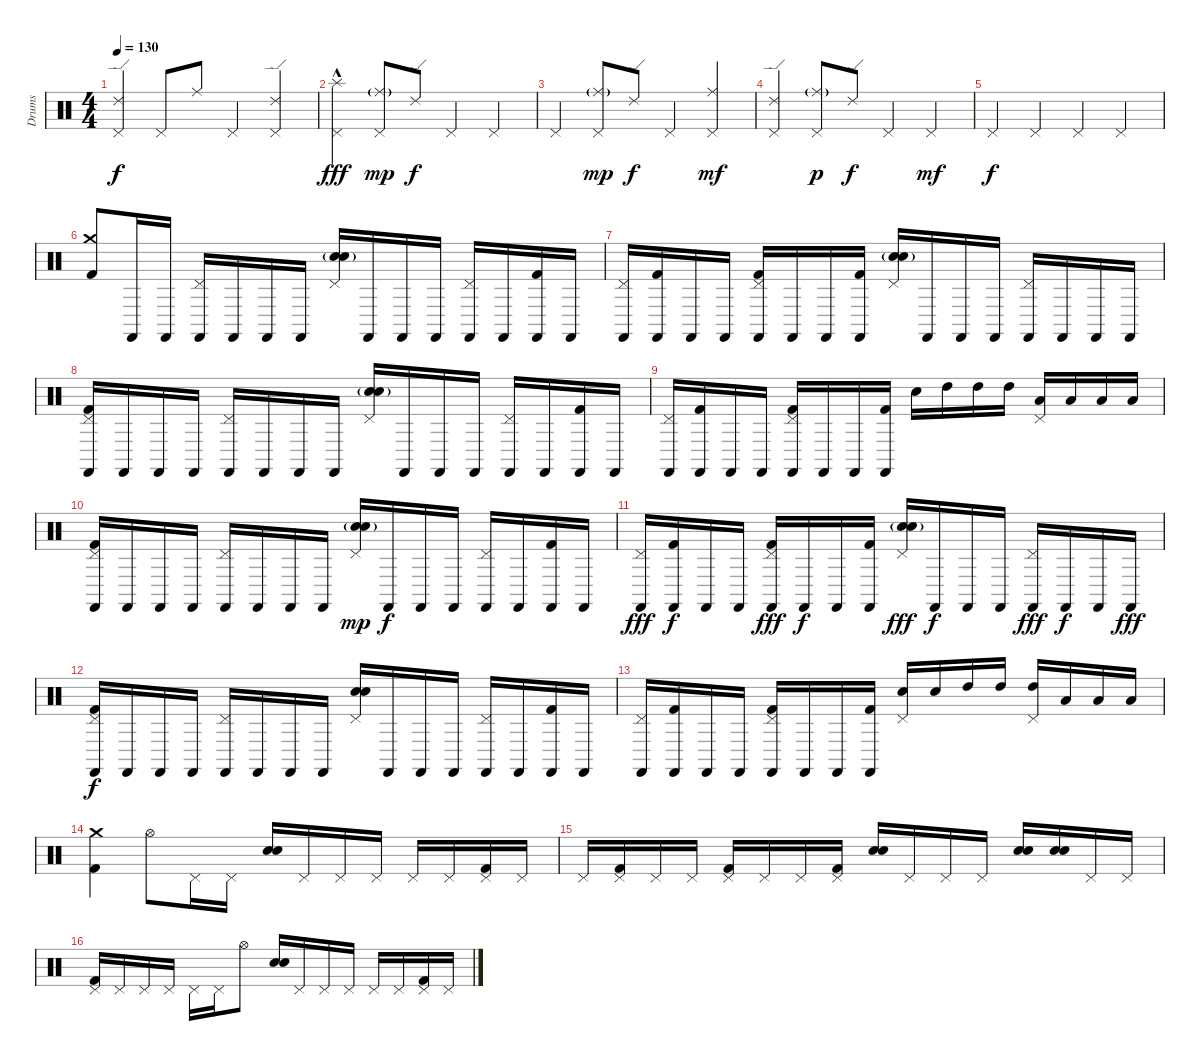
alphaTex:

\track ("Drums" "Drums") {instrument percussion}
\staff {score}
\articulation defaults
\ts (4 4)
\tempo 130
\clef neutral
\ks c
("Pedal Hi-Hat (hit)" "Ride (edge) 2").4{dy f} "Pedal Hi-Hat (hit)".8 "Ride (middle)".8 "Pedal Hi-Hat (hit)".4 ("Pedal Hi-Hat (hit)" "Ride (edge) 2").4 |
("Pedal Hi-Hat (hit)" "Splash (hit)"{hac}).4{dy fff} ("Pedal Hi-Hat (hit)" "Ride (middle)"{g}).8{dy mp} "Ride (edge) 2".8{dy f} "Pedal Hi-Hat (hit)".4 "Pedal Hi-Hat (hit)".4 |
"Pedal Hi-Hat (hit)".4 ("Pedal Hi-Hat (hit)" "Ride (middle)"{g}).8{dy mp} "Ride (edge) 2".8{dy f} "Pedal Hi-Hat (hit)".4 ("Pedal Hi-Hat (hit)" "Ride (middle)").4{dy mf} |
("Pedal Hi-Hat (hit)" "Ride (edge) 2").4 ("Pedal Hi-Hat (hit)" "Ride (middle)"{g}).8{dy p} "Ride (edge) 2".8{dy f} "Pedal Hi-Hat (hit)".4 "Pedal Hi-Hat (hit)".4{dy mf} |
"Pedal Hi-Hat (hit)".4{dy f} "Pedal Hi-Hat (hit)".4 "Pedal Hi-Hat (hit)".4 "Pedal Hi-Hat (hit)".4 |
("Crash medium (hit)" "Kick (hit) 2").8 "Castanets (hit)".16 "Castanets (hit)".16 ("Castanets (hit)" "Pedal Hi-Hat (hit)").16 "Castanets (hit)".16 "Castanets (hit)".16 "Castanets (hit)".16 ("Pedal Hi-Hat (hit)" "Electric Snare (hit)"{g} "Electric Snare (hit)").16 "Castanets (hit)".16 "Castanets (hit)".16 "Castanets (hit)".16 ("Castanets (hit)" "Pedal Hi-Hat (hit)").16 "Castanets (hit)".16 ("Castanets (hit)" "Kick (hit) 2").16 "Castanets (hit)".16 |
("Castanets (hit)" "Pedal Hi-Hat (hit)").16 ("Castanets (hit)" "Kick (hit) 2").16 "Castanets (hit)".16 "Castanets (hit)".16 ("Castanets (hit)" "Pedal Hi-Hat (hit)" "Kick (hit) 2").16 "Castanets (hit)".16 "Castanets (hit)".16 ("Castanets (hit)" "Kick (hit) 2").16 ("Pedal Hi-Hat (hit)" "Electric Snare (hit)"{g} "Electric Snare (hit)").16 "Castanets (hit)".16 "Castanets (hit)".16 "Castanets (hit)".16 ("Castanets (hit)" "Pedal Hi-Hat (hit)").16 "Castanets (hit)".16 "Castanets (hit)".16 "Castanets (hit)".16 |
("Castanets (hit)" "Pedal Hi-Hat (hit)" "Kick (hit) 2").16 "Castanets (hit)".16 "Castanets (hit)".16 "Castanets (hit)".16 ("Castanets (hit)" "Pedal Hi-Hat (hit)").16 "Castanets (hit)".16 "Castanets (hit)".16 "Castanets (hit)".16 ("Pedal Hi-Hat (hit)" "Electric Snare (hit)"{g} "Electric Snare (hit)").16 "Castanets (hit)".16 "Castanets (hit)".16 "Castanets (hit)".16 ("Castanets (hit)" "Pedal Hi-Hat (hit)").16 "Castanets (hit)".16 ("Castanets (hit)" "Kick (hit) 2").16 "Castanets (hit)".16 |
("Castanets (hit)" "Pedal Hi-Hat (hit)").16 ("Castanets (hit)" "Kick (hit) 2").16 "Castanets (hit)".16 "Castanets (hit)".16 ("Castanets (hit)" "Pedal Hi-Hat (hit)" "Kick (hit) 2").16 "Castanets (hit)".16 "Castanets (hit)".16 ("Castanets (hit)" "Kick (hit) 2").16 "Electric Snare (hit)".16 "High Tom (hit)".16 "High Tom (hit)".16 "High Tom (hit)".16 ("Low Tom (hit)" "Pedal Hi-Hat (hit)").16 "Low Tom (hit)".16 "Low Tom (hit)".16 "Low Tom (hit)".16 |
("Castanets (hit)" "Pedal Hi-Hat (hit)" "Kick (hit) 2").16 "Castanets (hit)".16 "Castanets (hit)".16 "Castanets (hit)".16 ("Castanets (hit)" "Pedal Hi-Hat (hit)").16 "Castanets (hit)".16 "Castanets (hit)".16 "Castanets (hit)".16 ("Pedal Hi-Hat (hit)" "Electric Snare (hit)"{g} "Electric Snare (hit)").16{dy mp} "Castanets (hit)".16{dy f} "Castanets (hit)".16 "Castanets (hit)".16 ("Castanets (hit)" "Pedal Hi-Hat (hit)").16 "Castanets (hit)".16 ("Castanets (hit)" "Kick (hit) 2").16 "Castanets (hit)".16 |
("Castanets (hit)" "Pedal Hi-Hat (hit)").16{dy fff} ("Castanets (hit)" "Kick (hit) 2").16{dy f} "Castanets (hit)".16 "Castanets (hit)".16 ("Castanets (hit)" "Pedal Hi-Hat (hit)" "Kick (hit) 2").16{dy fff} "Castanets (hit)".16{dy f} "Castanets (hit)".16 ("Castanets (hit)" "Kick (hit) 2").16 ("Pedal Hi-Hat (hit)" "Electric Snare (hit)"{g} "Electric Snare (hit)").16{dy fff} "Castanets (hit)".16{dy f} "Castanets (hit)".16 "Castanets (hit)".16 ("Castanets (hit)" "Pedal Hi-Hat (hit)").16{dy fff} "Castanets (hit)".16{dy f} "Castanets (hit)".16 "Castanets (hit)".16{dy fff} |
("Castanets (hit)" "Pedal Hi-Hat (hit)" "Kick (hit) 2").16{dy f} "Castanets (hit)".16 "Castanets (hit)".16 "Castanets (hit)".16 ("Castanets (hit)" "Pedal Hi-Hat (hit)").16 "Castanets (hit)".16 "Castanets (hit)".16 "Castanets (hit)".16 ("Pedal Hi-Hat (hit)" "Electric Snare (hit)" "Electric Snare (hit)").16 "Castanets (hit)".16 "Castanets (hit)".16 "Castanets (hit)".16 ("Castanets (hit)" "Pedal Hi-Hat (hit)").16 "Castanets (hit)".16 ("Castanets (hit)" "Kick (hit) 2").16 "Castanets (hit)".16 |
("Castanets (hit)" "Pedal Hi-Hat (hit)").16 ("Castanets (hit)" "Kick (hit) 2").16 "Castanets (hit)".16 "Castanets (hit)".16 ("Castanets (hit)" "Pedal Hi-Hat (hit)" "Kick (hit) 2").16 "Castanets (hit)".16 "Castanets (hit)".16 ("Castanets (hit)" "Kick (hit) 2").16 ("Electric Snare (hit)" "Pedal Hi-Hat (hit)").16 "Electric Snare (hit)".16 "High Tom (hit)".16 "High Tom (hit)".16 ("High Tom (hit)" "Pedal Hi-Hat (hit)").16 "Low Tom (hit)".16 "Low Tom (hit)".16 "Low Tom (hit)".16 |
("Crash medium (hit)" "Kick (hit) 2").4 "Hi-Hat (open)".8 "Pedal Hi-Hat (hit)".16 "Pedal Hi-Hat (hit)".16 ("Electric Snare (hit)" "Electric Snare (hit)").16 "Pedal Hi-Hat (hit)".16 "Pedal Hi-Hat (hit)".16 "Pedal Hi-Hat (hit)".16 "Pedal Hi-Hat (hit)".16 "Pedal Hi-Hat (hit)".16 ("Pedal Hi-Hat (hit)" "Kick (hit) 2").16 "Pedal Hi-Hat (hit)".16 |
"Pedal Hi-Hat (hit)".16 ("Pedal Hi-Hat (hit)" "Kick (hit) 2").16 "Pedal Hi-Hat (hit)".16 "Pedal Hi-Hat (hit)".16 ("Pedal Hi-Hat (hit)" "Kick (hit) 2").16 "Pedal Hi-Hat (hit)".16 "Pedal Hi-Hat (hit)".16 ("Pedal Hi-Hat (hit)" "Kick (hit) 2").16 ("Electric Snare (hit)" "Electric Snare (hit)").16 "Pedal Hi-Hat (hit)".16 "Pedal Hi-Hat (hit)".16 "Pedal Hi-Hat (hit)".16 ("Electric Snare (hit)" "Electric Snare (hit)").16 ("Electric Snare (hit)" "Electric Snare (hit)").16 "Pedal Hi-Hat (hit)".16 "Pedal Hi-Hat (hit)".16 |
("Pedal Hi-Hat (hit)" "Kick (hit) 2").16 "Pedal Hi-Hat (hit)".16 "Pedal Hi-Hat (hit)".16 "Pedal Hi-Hat (hit)".16 "Pedal Hi-Hat (hit)".16 "Pedal Hi-Hat (hit)".16 "Hi-Hat (open)".8 ("Electric Snare (hit)" "Electric Snare (hit)").16 "Pedal Hi-Hat (hit)".16 "Pedal Hi-Hat (hit)".16 "Pedal Hi-Hat (hit)".16 "Pedal Hi-Hat (hit)".16 "Pedal Hi-Hat (hit)".16 ("Pedal Hi-Hat (hit)" "Kick (hit) 2").16 "Pedal Hi-Hat (hit)".16
